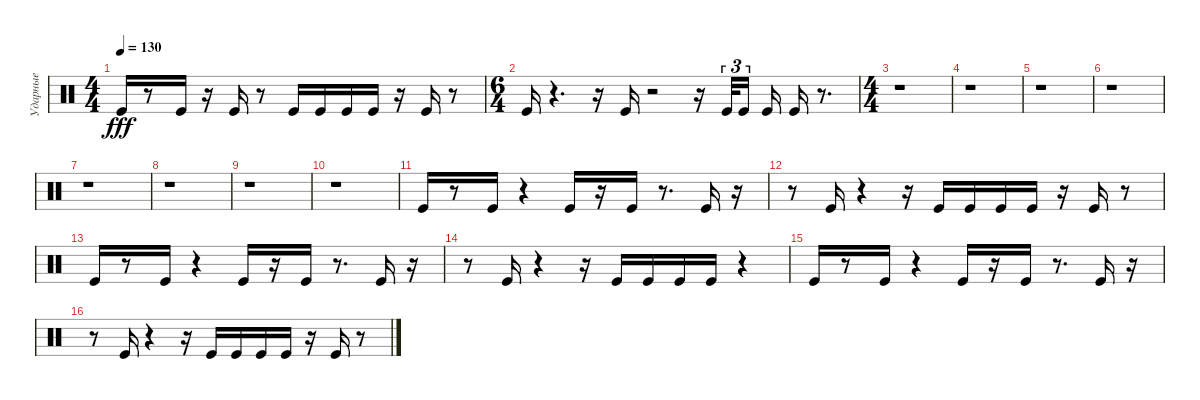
\track ("Ударные" "Ударные") {instrument percussion}
\staff {score}
\articulation defaults
\ts (4 4)
\tempo 130
\clef neutral
\ks c "Kick (hit)".16{dy fff}
r.8 "Kick (hit)".16 r.16 "Kick (hit)".16 r.8 "Kick (hit)".16 "Kick (hit)".16 "Kick (hit)".16 "Kick (hit)".16 r.16 "Kick (hit)".16 r.8 |
\ts (6 4)
"Kick (hit)".16 r.4{d} r.16 "Kick (hit)".16 r.2 r.16 "Kick (hit)".32{tu (3 2)} "Kick (hit)".16{tu (3 2) beam splitsecondary} "Kick (hit)".16 "Kick (hit)".16 r.8{d} |
\ts (4 4)
r.1 |
r.1 |
r.1 |
r.1 |
r.1 |
r.1 |
r.1 |
r.1 |
"Kick (hit)".16 r.8 "Kick (hit)".16 r.4 "Kick (hit)".16 r.16 "Kick (hit)".16 r.8{d} "Kick (hit)".16 r.16 |
r.8 "Kick (hit)".16 r.4 r.16 "Kick (hit)".16 "Kick (hit)".16 "Kick (hit)".16 "Kick (hit)".16 r.16 "Kick (hit)".16 r.8 |
"Kick (hit)".16 r.8 "Kick (hit)".16 r.4 "Kick (hit)".16 r.16 "Kick (hit)".16 r.8{d} "Kick (hit)".16 r.16 |
r.8 "Kick (hit)".16 r.4 r.16 "Kick (hit)".16 "Kick (hit)".16 "Kick (hit)".16 "Kick (hit)".16 r.4 |
"Kick (hit)".16 r.8 "Kick (hit)".16 r.4 "Kick (hit)".16 r.16 "Kick (hit)".16 r.8{d} "Kick (hit)".16 r.16 |
r.8 "Kick (hit)".16 r.4 r.16 "Kick (hit)".16 "Kick (hit)".16 "Kick (hit)".16 "Kick (hit)".16 r.16 "Kick (hit)".16 r.8
